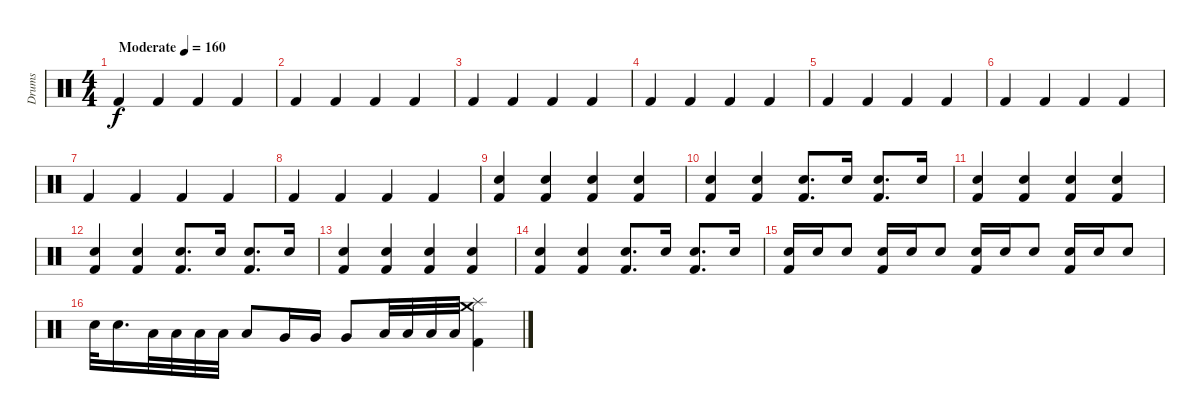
\track ("Drums" "Drums") {instrument percussion}
\staff {score}
\articulation defaults
\ts (4 4)
\tempo (160 "Moderate")
\clef neutral
\ks c "Kick (hit) 2".4{dy f} "Kick (hit) 2".4 "Kick (hit) 2".4 "Kick (hit) 2".4
|
"Kick (hit) 2".4 "Kick (hit) 2".4 "Kick (hit) 2".4 "Kick (hit) 2".4 |
"Kick (hit) 2".4 "Kick (hit) 2".4 "Kick (hit) 2".4 "Kick (hit) 2".4 |
"Kick (hit) 2".4 "Kick (hit) 2".4 "Kick (hit) 2".4 "Kick (hit) 2".4 |
"Kick (hit) 2".4 "Kick (hit) 2".4 "Kick (hit) 2".4 "Kick (hit) 2".4 |
"Kick (hit) 2".4 "Kick (hit) 2".4 "Kick (hit) 2".4 "Kick (hit) 2".4 |
"Kick (hit) 2".4 "Kick (hit) 2".4 "Kick (hit) 2".4 "Kick (hit) 2".4 |
"Kick (hit) 2".4 "Kick (hit) 2".4 "Kick (hit) 2".4 "Kick (hit) 2".4 |
("Electric Snare (hit)" "Kick (hit) 2").4 ("Electric Snare (hit)" "Kick (hit) 2").4 ("Electric Snare (hit)" "Kick (hit) 2").4 ("Electric Snare (hit)" "Kick (hit) 2").4 |
("Electric Snare (hit)" "Kick (hit) 2").4 ("Electric Snare (hit)" "Kick (hit) 2").4 ("Electric Snare (hit)" "Kick (hit) 2").8{d} "Electric Snare (hit)".16 ("Electric Snare (hit)" "Kick (hit) 2").8{d} "Electric Snare (hit)".16 |
("Electric Snare (hit)" "Kick (hit) 2").4 ("Electric Snare (hit)" "Kick (hit) 2").4 ("Electric Snare (hit)" "Kick (hit) 2").4 ("Electric Snare (hit)" "Kick (hit) 2").4 |
("Electric Snare (hit)" "Kick (hit) 2").4 ("Electric Snare (hit)" "Kick (hit) 2").4 ("Electric Snare (hit)" "Kick (hit) 2").8{d} "Electric Snare (hit)".16 ("Electric Snare (hit)" "Kick (hit) 2").8{d} "Electric Snare (hit)".16 |
("Electric Snare (hit)" "Kick (hit) 2").4 ("Electric Snare (hit)" "Kick (hit) 2").4 ("Electric Snare (hit)" "Kick (hit) 2").4 ("Electric Snare (hit)" "Kick (hit) 2").4 |
("Electric Snare (hit)" "Kick (hit) 2").4 ("Electric Snare (hit)" "Kick (hit) 2").4 ("Electric Snare (hit)" "Kick (hit) 2").8{d} "Electric Snare (hit)".16 ("Electric Snare (hit)" "Kick (hit) 2").8{d} "Electric Snare (hit)".16 |
("Electric Snare (hit)" "Kick (hit) 2").16 "Electric Snare (hit)".16 "Electric Snare (hit)".8 ("Electric Snare (hit)" "Kick (hit) 2").16 "Electric Snare (hit)".16 "Electric Snare (hit)".8 ("Electric Snare (hit)" "Kick (hit) 2").16 "Electric Snare (hit)".16 "Electric Snare (hit)".8 ("Electric Snare (hit)" "Kick (hit) 2").16 "Electric Snare (hit)".16 "Electric Snare (hit)".8 |
"Electric Snare (hit)".32 "Electric Snare (hit)".16{d} "Low Tom (hit)".32 "Low Tom (hit)".32 "Low Tom (hit)".32 "Low Tom (hit)".32 "Low Tom (hit)".8 "Very Low Tom (hit)".16 "Very Low Tom (hit)".16 "Very Low Tom (hit)".8 "Low Floor Tom (hit)".32 "Low Floor Tom (hit)".32 "Low Floor Tom (hit)".32 "Low Floor Tom (hit)".32 ("Splash (hit)" "Crash medium (hit)" "Kick (hit) 2").4
